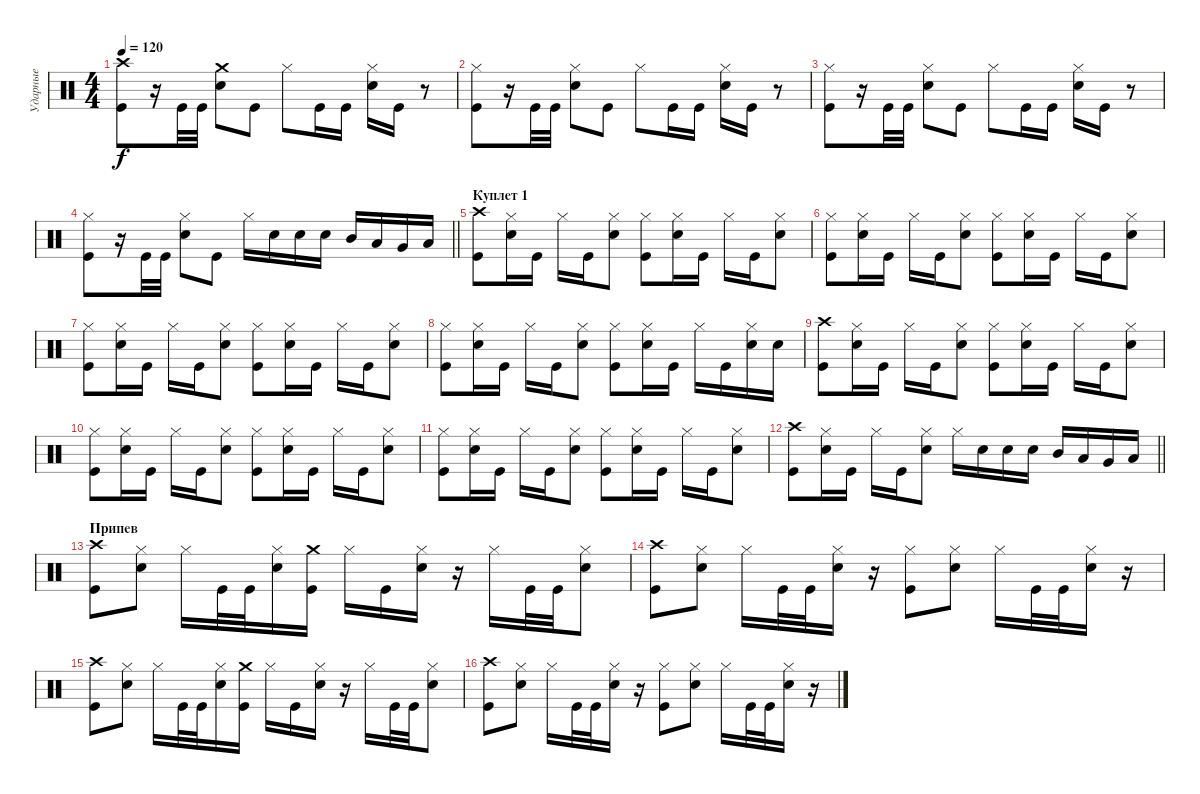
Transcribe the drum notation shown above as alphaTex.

\track ("Ударные" "Ударные") {instrument percussion}
\staff {score}
\articulation defaults
\ts (4 4)
\tempo 120
\clef neutral
\ks c
("Crash high (hit)" "Kick (hit)").8{dy f} r.16 "Kick (hit)".32 "Kick (hit)".32 ("Crash medium (hit)" "Snare (hit) 2").8 "Kick (hit)".8 "Hi-Hat (closed)".8 "Kick (hit)".16 "Kick (hit)".16 ("Hi-Hat (closed)" "Snare (hit) 2").16 "Kick (hit)".16 r.8 |
("Hi-Hat (closed)" "Kick (hit)").8 r.16 "Kick (hit)".32 "Kick (hit)".32 ("Hi-Hat (closed)" "Snare (hit) 2").8 "Kick (hit)".8 "Hi-Hat (closed)".8 "Kick (hit)".16 "Kick (hit)".16 ("Hi-Hat (closed)" "Snare (hit) 2").16 "Kick (hit)".16 r.8 |
("Hi-Hat (closed)" "Kick (hit)").8 r.16 "Kick (hit)".32 "Kick (hit)".32 ("Hi-Hat (closed)" "Snare (hit) 2").8 "Kick (hit)".8 "Hi-Hat (closed)".8 "Kick (hit)".16 "Kick (hit)".16 ("Hi-Hat (closed)" "Snare (hit) 2").16 "Kick (hit)".16 r.8 |
\barLineRight lightlight
("Hi-Hat (closed)" "Kick (hit)").8 r.16 "Kick (hit)".32 "Kick (hit)".32 ("Hi-Hat (closed)" "Snare (hit) 2").8 "Kick (hit)".8 "Hi-Hat (closed)".16 "Snare (hit) 2".16 "Snare (hit) 2".16 "Snare (hit) 2".16 "Mid Tom (hit)".16 "Low Tom (hit)".16 "Very Low Tom (hit)".16 "Low Floor Tom (hit)".16 |
\section ("" "Куплет 1")
("Crash high (hit)" "Kick (hit)").8 ("Hi-Hat (closed)" "Snare (hit) 2").16 "Kick (hit)".16 "Hi-Hat (closed)".16 "Kick (hit)".16 ("Hi-Hat (closed)" "Snare (hit) 2").8 ("Hi-Hat (closed)" "Kick (hit)").8 ("Hi-Hat (closed)" "Snare (hit) 2").16 "Kick (hit)".16 "Hi-Hat (closed)".16 "Kick (hit)".16 ("Hi-Hat (closed)" "Snare (hit) 2").8 |
("Hi-Hat (closed)" "Kick (hit)").8 ("Hi-Hat (closed)" "Snare (hit) 2").16 "Kick (hit)".16 "Hi-Hat (closed)".16 "Kick (hit)".16 ("Hi-Hat (closed)" "Snare (hit) 2").8 ("Hi-Hat (closed)" "Kick (hit)").8 ("Hi-Hat (closed)" "Snare (hit) 2").16 "Kick (hit)".16 "Hi-Hat (closed)".16 "Kick (hit)".16 ("Hi-Hat (closed)" "Snare (hit) 2").8 |
("Hi-Hat (closed)" "Kick (hit)").8 ("Hi-Hat (closed)" "Snare (hit) 2").16 "Kick (hit)".16 "Hi-Hat (closed)".16 "Kick (hit)".16 ("Hi-Hat (closed)" "Snare (hit) 2").8 ("Hi-Hat (closed)" "Kick (hit)").8 ("Hi-Hat (closed)" "Snare (hit) 2").16 "Kick (hit)".16 "Hi-Hat (closed)".16 "Kick (hit)".16 ("Hi-Hat (closed)" "Snare (hit) 2").8 |
("Hi-Hat (closed)" "Kick (hit)").8 ("Hi-Hat (closed)" "Snare (hit) 2").16 "Kick (hit)".16 "Hi-Hat (closed)".16 "Kick (hit)".16 ("Hi-Hat (closed)" "Snare (hit) 2").8 ("Hi-Hat (closed)" "Kick (hit)").8 ("Hi-Hat (closed)" "Snare (hit) 2").16 "Kick (hit)".16 "Hi-Hat (closed)".16 "Kick (hit)".16 ("Hi-Hat (closed)" "Snare (hit) 2").16 "Snare (hit) 2".16 |
("Crash high (hit)" "Kick (hit)").8 ("Hi-Hat (closed)" "Snare (hit) 2").16 "Kick (hit)".16 "Hi-Hat (closed)".16 "Kick (hit)".16 ("Hi-Hat (closed)" "Snare (hit) 2").8 ("Hi-Hat (closed)" "Kick (hit)").8 ("Hi-Hat (closed)" "Snare (hit) 2").16 "Kick (hit)".16 "Hi-Hat (closed)".16 "Kick (hit)".16 ("Hi-Hat (closed)" "Snare (hit) 2").8 |
("Hi-Hat (closed)" "Kick (hit)").8 ("Hi-Hat (closed)" "Snare (hit) 2").16 "Kick (hit)".16 "Hi-Hat (closed)".16 "Kick (hit)".16 ("Hi-Hat (closed)" "Snare (hit) 2").8 ("Hi-Hat (closed)" "Kick (hit)").8 ("Hi-Hat (closed)" "Snare (hit) 2").16 "Kick (hit)".16 "Hi-Hat (closed)".16 "Kick (hit)".16 ("Hi-Hat (closed)" "Snare (hit) 2").8 |
("Hi-Hat (closed)" "Kick (hit)").8 ("Hi-Hat (closed)" "Snare (hit) 2").16 "Kick (hit)".16 "Hi-Hat (closed)".16 "Kick (hit)".16 ("Hi-Hat (closed)" "Snare (hit) 2").8 ("Hi-Hat (closed)" "Kick (hit)").8 ("Hi-Hat (closed)" "Snare (hit) 2").16 "Kick (hit)".16 "Hi-Hat (closed)".16 "Kick (hit)".16 ("Hi-Hat (closed)" "Snare (hit) 2").8 |
\barLineRight lightlight
("Crash high (hit)" "Kick (hit)").8 ("Hi-Hat (closed)" "Snare (hit) 2").16 "Kick (hit)".16 "Hi-Hat (closed)".16 "Kick (hit)".16 ("Hi-Hat (closed)" "Snare (hit) 2").8 "Hi-Hat (closed)".16 "Snare (hit) 2".16 "Snare (hit) 2".16 "Snare (hit) 2".16 "Mid Tom (hit)".16 "Low Tom (hit)".16 "Very Low Tom (hit)".16 "Low Floor Tom (hit)".16 |
\section ("" "Припев")
("Crash high (hit)" "Kick (hit)").8 ("Hi-Hat (closed)" "Snare (hit) 2").8 "Hi-Hat (closed)".16 "Kick (hit)".32 "Kick (hit)".32 ("Hi-Hat (closed)" "Snare (hit) 2").16 ("Crash medium (hit)" "Kick (hit)").16 "Hi-Hat (closed)".16 "Kick (hit)".16 ("Hi-Hat (closed)" "Snare (hit) 2").16 r.16 "Hi-Hat (closed)".16 "Kick (hit)".32 "Kick (hit)".32 ("Hi-Hat (closed)" "Snare (hit) 2").8 |
("Crash high (hit)" "Kick (hit)").8 ("Hi-Hat (closed)" "Snare (hit) 2").8 "Hi-Hat (closed)".16 "Kick (hit)".32 "Kick (hit)".32 ("Hi-Hat (closed)" "Snare (hit) 2").16 r.16 ("Hi-Hat (closed)" "Kick (hit)").8 ("Hi-Hat (closed)" "Snare (hit) 2").8 "Hi-Hat (closed)".16 "Kick (hit)".32 "Kick (hit)".32 ("Hi-Hat (closed)" "Snare (hit) 2").16 r.16 |
("Crash high (hit)" "Kick (hit)").8 ("Hi-Hat (closed)" "Snare (hit) 2").8 "Hi-Hat (closed)".16 "Kick (hit)".32 "Kick (hit)".32 ("Hi-Hat (closed)" "Snare (hit) 2").16 ("Crash medium (hit)" "Kick (hit)").16 "Hi-Hat (closed)".16 "Kick (hit)".16 ("Hi-Hat (closed)" "Snare (hit) 2").16 r.16 "Hi-Hat (closed)".16 "Kick (hit)".32 "Kick (hit)".32 ("Hi-Hat (closed)" "Snare (hit) 2").8 |
("Crash high (hit)" "Kick (hit)").8 ("Hi-Hat (closed)" "Snare (hit) 2").8 "Hi-Hat (closed)".16 "Kick (hit)".32 "Kick (hit)".32 ("Hi-Hat (closed)" "Snare (hit) 2").16 r.16 ("Hi-Hat (closed)" "Kick (hit)").8 ("Hi-Hat (closed)" "Snare (hit) 2").8 "Hi-Hat (closed)".16 "Kick (hit)".32 "Kick (hit)".32 ("Hi-Hat (closed)" "Snare (hit) 2").16 r.16
